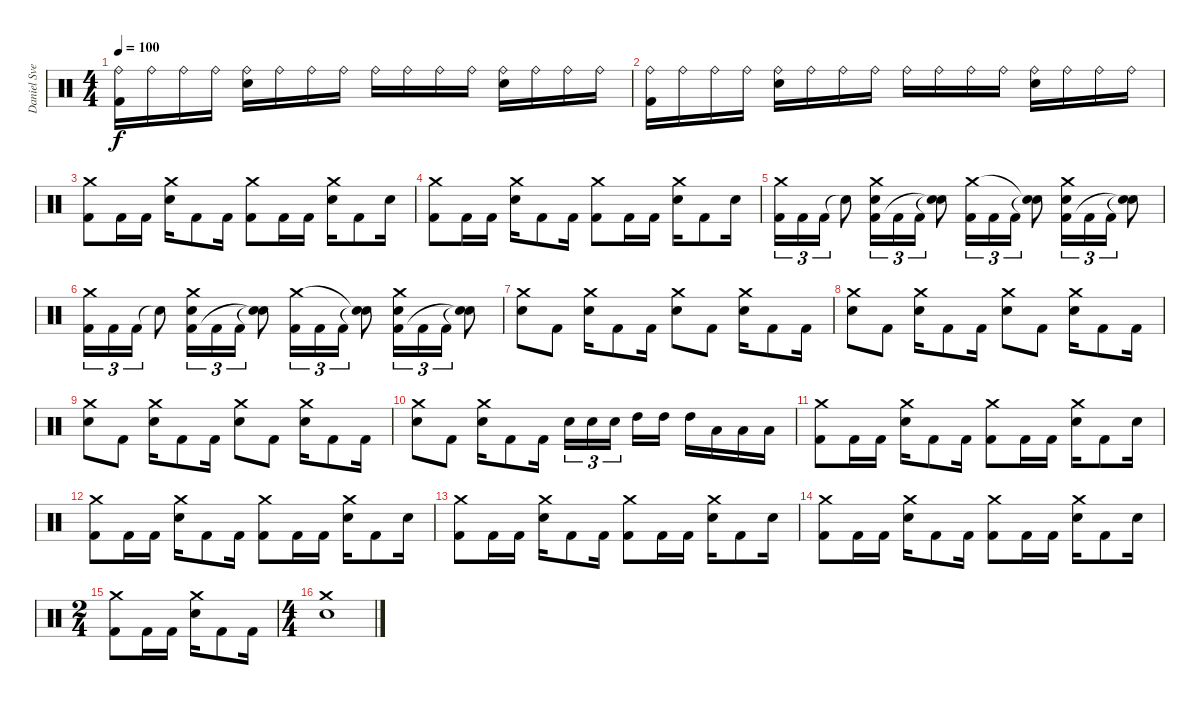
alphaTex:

\track ("Daniel Svennson" "Daniel Sve") {instrument percussion}
\staff {score}
\articulation defaults
\ts (4 4)
\tempo 100
\clef neutral
\ks c
("Ride (bell)" "Kick (hit) 2").16{dy f} "Ride (bell)".16 "Ride (bell)".16 "Ride (bell)".16 ("Ride (bell)" "Snare (hit) 2").16 "Ride (bell)".16 "Ride (bell)".16 "Ride (bell)".16 "Ride (bell)".16 "Ride (bell)".16 "Ride (bell)".16 "Ride (bell)".16 ("Ride (bell)" "Snare (hit) 2").16 "Ride (bell)".16 "Ride (bell)".16 "Ride (bell)".16 |
("Ride (bell)" "Kick (hit) 2").16 "Ride (bell)".16 "Ride (bell)".16 "Ride (bell)".16 ("Ride (bell)" "Snare (hit) 2").16 "Ride (bell)".16 "Ride (bell)".16 "Ride (bell)".16 "Ride (bell)".16 "Ride (bell)".16 "Ride (bell)".16 "Ride (bell)".16 ("Ride (bell)" "Snare (hit) 2").16 "Ride (bell)".16 "Ride (bell)".16 "Ride (bell)".16 |
("Kick (hit) 2" "Crash medium (hit)").8 "Kick (hit) 2".16 "Kick (hit) 2".16 ("Snare (hit) 2" "Crash medium (hit)").16 "Kick (hit) 2".8 "Kick (hit) 2".16 ("Kick (hit) 2" "Crash medium (hit)").8 "Kick (hit) 2".16 "Kick (hit) 2".16 ("Snare (hit) 2" "Crash medium (hit)").16 "Kick (hit) 2".8 "Snare (hit) 2".16 |
("Kick (hit) 2" "Crash medium (hit)").8 "Kick (hit) 2".16 "Kick (hit) 2".16 ("Snare (hit) 2" "Crash medium (hit)").16 "Kick (hit) 2".8 "Kick (hit) 2".16 ("Kick (hit) 2" "Crash medium (hit)").8 "Kick (hit) 2".16 "Kick (hit) 2".16 ("Snare (hit) 2" "Crash medium (hit)").16 "Kick (hit) 2".8 "Snare (hit) 2".16 |
("Kick (hit) 2" "Crash medium (hit)").16{tu (3 2)} "Kick (hit) 2".16{tu (3 2)} "Kick (hit) 2".16{tu (3 2)} "Snare (hit)"{t}.8 ("Snare (hit) 2" "Kick (hit) 2" "Crash medium (hit)").16{tu (3 2)} "Kick (hit) 2".16{tu (3 2)} "Kick (hit) 2".16{tu (3 2)} ("Snare (hit)"{t} "Snare (hit)"{t}).8 ("Kick (hit) 2" "Crash medium (hit)").16{tu (3 2)} "Kick (hit) 2".16{tu (3 2)} "Kick (hit) 2".16{tu (3 2)} ("Snare (hit)"{t} "Snare (hit)"{t}).8 ("Snare (hit) 2" "Kick (hit) 2" "Crash medium (hit)").16{tu (3 2)} "Kick (hit) 2".16{tu (3 2)} "Kick (hit) 2".16{tu (3 2)} ("Snare (hit)"{t} "Snare (hit)"{t}).8 |
("Kick (hit) 2" "Crash medium (hit)").16{tu (3 2)} "Kick (hit) 2".16{tu (3 2)} "Kick (hit) 2".16{tu (3 2)} "Snare (hit)"{t}.8 ("Snare (hit) 2" "Kick (hit) 2" "Crash medium (hit)").16{tu (3 2)} "Kick (hit) 2".16{tu (3 2)} "Kick (hit) 2".16{tu (3 2)} ("Snare (hit)"{t} "Snare (hit)"{t}).8 ("Kick (hit) 2" "Crash medium (hit)").16{tu (3 2)} "Kick (hit) 2".16{tu (3 2)} "Kick (hit) 2".16{tu (3 2)} ("Snare (hit)"{t} "Snare (hit)"{t}).8 ("Snare (hit) 2" "Kick (hit) 2" "Crash medium (hit)").16{tu (3 2)} "Kick (hit) 2".16{tu (3 2)} "Kick (hit) 2".16{tu (3 2)} ("Snare (hit)"{t} "Snare (hit)"{t}).8 |
("Snare (hit) 2" "Crash medium (hit)").8 "Kick (hit) 2".8 ("Snare (hit) 2" "Crash medium (hit)").16 "Kick (hit) 2".8 "Kick (hit) 2".16 ("Snare (hit) 2" "Crash medium (hit)").8 "Kick (hit) 2".8 ("Snare (hit) 2" "Crash medium (hit)").16 "Kick (hit) 2".8 "Kick (hit) 2".16 |
("Snare (hit) 2" "Crash medium (hit)").8 "Kick (hit) 2".8 ("Snare (hit) 2" "Crash medium (hit)").16 "Kick (hit) 2".8 "Kick (hit) 2".16 ("Snare (hit) 2" "Crash medium (hit)").8 "Kick (hit) 2".8 ("Snare (hit) 2" "Crash medium (hit)").16 "Kick (hit) 2".8 "Kick (hit) 2".16 |
("Snare (hit) 2" "Crash medium (hit)").8 "Kick (hit) 2".8 ("Snare (hit) 2" "Crash medium (hit)").16 "Kick (hit) 2".8 "Kick (hit) 2".16 ("Snare (hit) 2" "Crash medium (hit)").8 "Kick (hit) 2".8 ("Snare (hit) 2" "Crash medium (hit)").16 "Kick (hit) 2".8 "Kick (hit) 2".16 |
("Snare (hit) 2" "Crash medium (hit)").8 "Kick (hit) 2".8 ("Snare (hit) 2" "Crash medium (hit)").16 "Kick (hit) 2".8 "Kick (hit) 2".16 "Snare (hit) 2".16{tu (3 2)} "Snare (hit) 2".16{tu (3 2)} "Snare (hit) 2".16{tu (3 2)} "High Tom (hit)".16 "High Tom (hit)".16 "High Tom (hit)".16 "Low Tom (hit)".16 "Low Tom (hit)".16 "Low Floor Tom (hit)".16 |
("Kick (hit) 2" "Crash medium (hit)").8 "Kick (hit) 2".16 "Kick (hit) 2".16 ("Snare (hit) 2" "Crash medium (hit)").16 "Kick (hit) 2".8 "Kick (hit) 2".16 ("Kick (hit) 2" "Crash medium (hit)").8 "Kick (hit) 2".16 "Kick (hit) 2".16 ("Snare (hit) 2" "Crash medium (hit)").16 "Kick (hit) 2".8 "Snare (hit) 2".16 |
("Kick (hit) 2" "Crash medium (hit)").8 "Kick (hit) 2".16 "Kick (hit) 2".16 ("Snare (hit) 2" "Crash medium (hit)").16 "Kick (hit) 2".8 "Kick (hit) 2".16 ("Kick (hit) 2" "Crash medium (hit)").8 "Kick (hit) 2".16 "Kick (hit) 2".16 ("Snare (hit) 2" "Crash medium (hit)").16 "Kick (hit) 2".8 "Snare (hit) 2".16 |
("Kick (hit) 2" "Crash medium (hit)").8 "Kick (hit) 2".16 "Kick (hit) 2".16 ("Snare (hit) 2" "Crash medium (hit)").16 "Kick (hit) 2".8 "Kick (hit) 2".16 ("Kick (hit) 2" "Crash medium (hit)").8 "Kick (hit) 2".16 "Kick (hit) 2".16 ("Snare (hit) 2" "Crash medium (hit)").16 "Kick (hit) 2".8 "Snare (hit) 2".16 |
("Kick (hit) 2" "Crash medium (hit)").8 "Kick (hit) 2".16 "Kick (hit) 2".16 ("Snare (hit) 2" "Crash medium (hit)").16 "Kick (hit) 2".8 "Kick (hit) 2".16 ("Kick (hit) 2" "Crash medium (hit)").8 "Kick (hit) 2".16 "Kick (hit) 2".16 ("Snare (hit) 2" "Crash medium (hit)").16 "Kick (hit) 2".8 "Snare (hit) 2".16 |
\ts (2 4)
("Kick (hit) 2" "Crash medium (hit)").8 "Kick (hit) 2".16 "Kick (hit) 2".16 ("Snare (hit) 2" "Crash medium (hit)").16 "Kick (hit) 2".8 "Kick (hit) 2".16 |
\ts (4 4)
("Snare (hit) 2" "Crash medium (hit)").1
